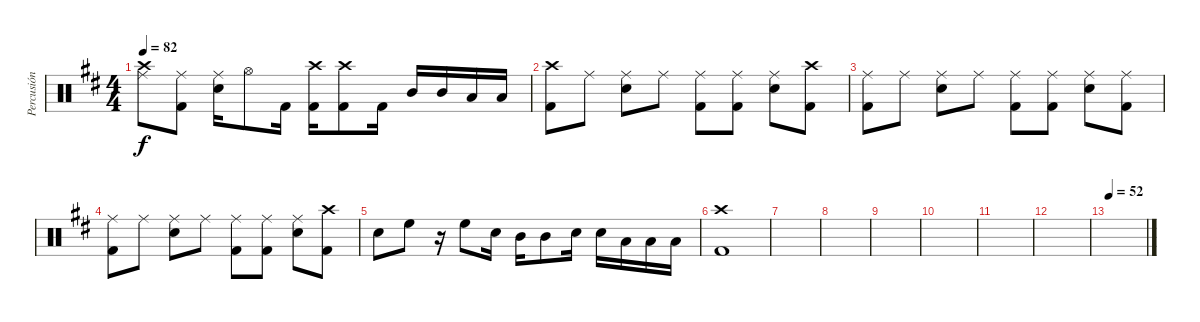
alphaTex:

\track ("Percusión" "Percusión") {instrument percussion}
\staff {score}
\articulation defaults
\ts (4 4)
\tempo 82
\clef neutral
\ks d
("Crash high (hit)"{t} "Ride (middle)").8{dy f} ("Ride (middle)" "Kick (hit) 2").8 ("Ride (middle)" "Snare (hit) 2").16 "Hi-Hat (open)".8 "Kick (hit) 2".16 ("Crash high (hit)" "Kick (hit) 2").16 ("Crash high (hit)" "Kick (hit) 2").8 "Kick (hit) 2".16 "Mid Tom (hit)".16 "Mid Tom (hit)".16 "Low Tom (hit)".16 "Low Tom (hit)".16 |
("Crash high (hit)" "Kick (hit) 2").8 "Ride (middle)".8 ("Ride (middle)" "Snare (hit) 2").8 "Ride (middle)".8 ("Ride (middle)" "Kick (hit) 2").8 ("Ride (middle)" "Kick (hit) 2").8 ("Ride (middle)" "Snare (hit) 2").8 ("Crash high (hit)" "Kick (hit) 2").8 |
("Ride (middle)" "Kick (hit) 2").8 "Ride (middle)".8 ("Ride (middle)" "Snare (hit) 2").8 "Ride (middle)".8 ("Ride (middle)" "Kick (hit) 2").8 ("Ride (middle)" "Kick (hit) 2").8 ("Ride (middle)" "Snare (hit) 2").8 ("Ride (middle)" "Kick (hit) 2").8 |
("Ride (middle)" "Kick (hit) 2").8 "Ride (middle)".8 ("Ride (middle)" "Snare (hit) 2").8 "Ride (middle)".8 ("Ride (middle)" "Kick (hit) 2").8 ("Ride (middle)" "Kick (hit) 2").8 ("Ride (middle)" "Snare (hit) 2").8 ("Crash high (hit)" "Kick (hit) 2").8 |
"Snare (hit) 2".8 "High Floor Tom (hit)".8 r.16 "High Floor Tom (hit)".8 "Snare (hit) 2".16 "Mid Tom (hit)".16 "Mid Tom (hit)".8 "Snare (hit) 2".16 "Snare (hit) 2".16 "Low Tom (hit)".16 "Low Tom (hit)".16 "Low Tom (hit)".16 |
("Crash high (hit)" "Kick (hit) 2").1 |
|
|
|
|
|
|
\tempo 52
